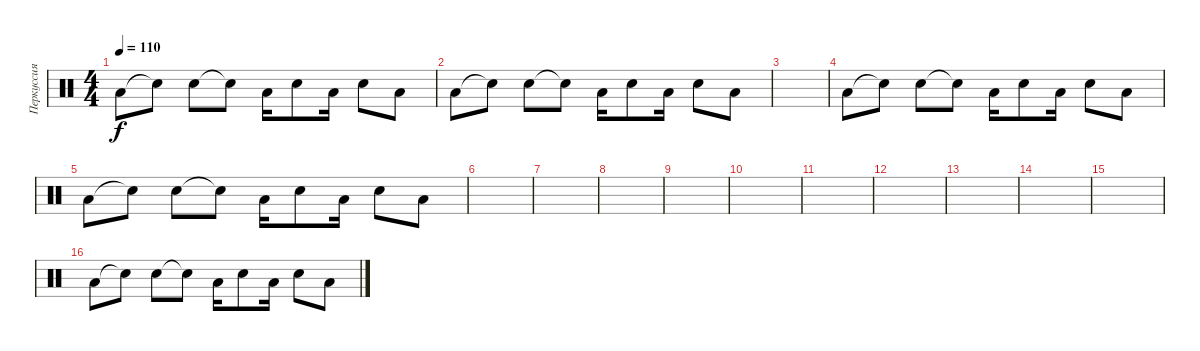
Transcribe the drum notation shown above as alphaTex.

\track ("Перкуссия" "Перкуссия") {instrument percussion}
\staff {score}
\articulation defaults
\ts (4 4)
\tempo 110
\clef neutral
\ks c "Low Floor Tom (hit)".8{dy f} "Snare (hit)"{t}.8 "Electric Snare (hit)".8 "Snare (hit)"{t}.8 "Low Floor Tom (hit)".16 "Electric Snare (hit)".8 "Low Floor Tom (hit)".16 "Electric Snare (hit)".8 "Low Floor Tom (hit)".8
|
"Low Floor Tom (hit)".8 "Snare (hit)"{t}.8 "Electric Snare (hit)".8 "Snare (hit)"{t}.8 "Low Floor Tom (hit)".16 "Electric Snare (hit)".8 "Low Floor Tom (hit)".16 "Electric Snare (hit)".8 "Low Floor Tom (hit)".8 |
|
"Low Floor Tom (hit)".8 "Snare (hit)"{t}.8 "Electric Snare (hit)".8 "Snare (hit)"{t}.8 "Low Floor Tom (hit)".16 "Electric Snare (hit)".8 "Low Floor Tom (hit)".16 "Electric Snare (hit)".8 "Low Floor Tom (hit)".8 |
"Low Floor Tom (hit)".8 "Snare (hit)"{t}.8 "Electric Snare (hit)".8 "Snare (hit)"{t}.8 "Low Floor Tom (hit)".16 "Electric Snare (hit)".8 "Low Floor Tom (hit)".16 "Electric Snare (hit)".8 "Low Floor Tom (hit)".8 |
|
|
|
|
|
|
|
|
|
|
"Low Floor Tom (hit)".8 "Snare (hit)"{t}.8 "Electric Snare (hit)".8 "Snare (hit)"{t}.8 "Low Floor Tom (hit)".16 "Electric Snare (hit)".8 "Low Floor Tom (hit)".16 "Electric Snare (hit)".8 "Low Floor Tom (hit)".8
